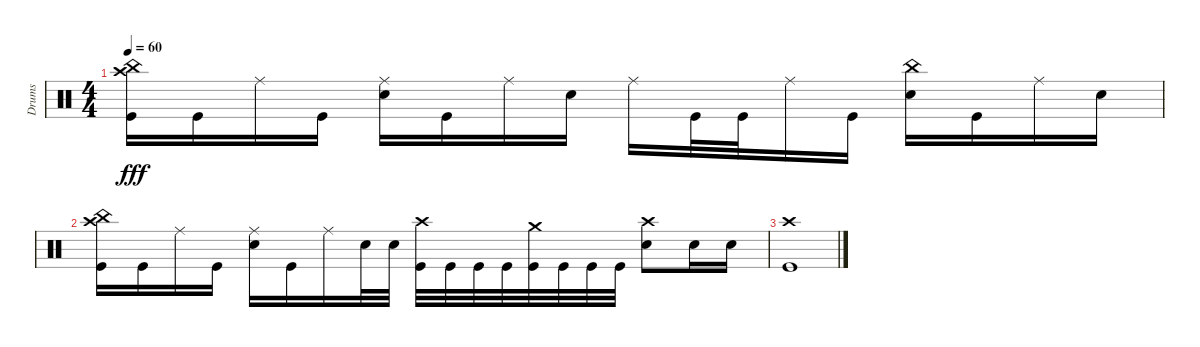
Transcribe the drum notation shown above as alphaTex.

\track ("Drums" "Drums") {instrument percussion}
\staff {score}
\articulation defaults
\ts (4 4)
\tempo 60
\clef neutral
\ks c
("Crash high (hit)" "Kick (hit)" "China (hit)").16{dy fff} "Kick (hit)".16 "Ride (middle)".16 "Kick (hit)".16 ("Ride (middle)" "Snare (hit) 2").16 "Kick (hit)".16 "Ride (middle)".16 "Snare (hit) 2".16 "Ride (middle)".16 "Kick (hit)".32 "Kick (hit)".32 "Ride (middle)".16 "Kick (hit)".16 ("China (hit)" "Snare (hit) 2").16 "Kick (hit)".16 "Ride (middle)".16 "Snare (hit) 2".16 |
("Crash high (hit)" "Kick (hit)" "China (hit)").16 "Kick (hit)".16 "Ride (middle)".16 "Kick (hit)".16 ("Ride (middle)" "Snare (hit) 2").16 "Kick (hit)".16 "Ride (middle)".16 "Snare (hit) 2".32 "Snare (hit) 2".32 ("Crash high (hit)" "Kick (hit)").32 "Kick (hit)".32 "Kick (hit)".32 "Kick (hit)".32 ("Crash medium (hit)" "Kick (hit)").32 "Kick (hit)".32 "Kick (hit)".32 "Kick (hit)".32 ("Crash high (hit)" "Snare (hit) 2").8 "Snare (hit) 2".16 "Snare (hit) 2".16 |
("Crash high (hit)" "Kick (hit)").1
